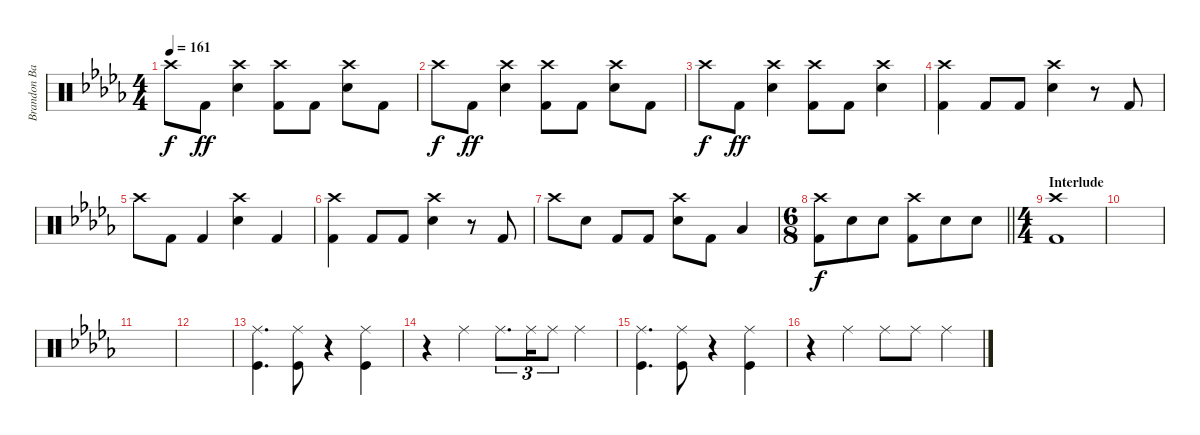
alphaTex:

\track ("Brandon Barnes - Drums" "Brandon Ba") {instrument percussion}
\staff {score}
\articulation defaults
\ts (4 4)
\tempo 161
\clef neutral
\ks db "Crash high (hit)".8{dy f} "Kick (hit) 2".8{dy ff}
("Snare (hit) 2" "Crash high (hit)").4 ("Kick (hit) 2" "Crash high (hit)").8 "Kick (hit) 2".8 ("Snare (hit) 2" "Crash high (hit)").8 "Kick (hit) 2".8 |
"Crash high (hit)".8{dy f} "Kick (hit) 2".8{dy ff} ("Snare (hit) 2" "Crash high (hit)").4 ("Kick (hit) 2" "Crash high (hit)").8 "Kick (hit) 2".8 ("Snare (hit) 2" "Crash high (hit)").8 "Kick (hit) 2".8 |
"Crash high (hit)".8{dy f} "Kick (hit) 2".8{dy ff} ("Snare (hit) 2" "Crash high (hit)").4 ("Kick (hit) 2" "Crash high (hit)").8 "Kick (hit) 2".8 ("Snare (hit) 2" "Crash high (hit)").4 |
("Crash high (hit)" "Kick (hit) 2").4 "Kick (hit) 2".8 "Kick (hit) 2".8 ("Snare (hit) 2" "Crash high (hit)").4 r.8 "Kick (hit) 2".8 |
"Crash high (hit)".8 "Kick (hit) 2".8 "Kick (hit) 2".4 ("Snare (hit) 2" "Crash high (hit)").4 "Kick (hit) 2".4 |
("Crash high (hit)" "Kick (hit) 2").4 "Kick (hit) 2".8 "Kick (hit) 2".8 ("Snare (hit) 2" "Crash high (hit)").4 r.8 "Kick (hit) 2".8 |
"Crash high (hit)".8 "Snare (hit) 2".8 "Kick (hit) 2".8 "Kick (hit) 2".8 ("Snare (hit) 2" "Crash high (hit)").8 "Kick (hit) 2".8 "Low Tom (hit)".4 |
\ts (6 8)
\barLineRight lightlight
("Kick (hit) 2" "Crash high (hit)").8{dy f} "Snare (hit) 2".8 "Snare (hit) 2".8 ("Kick (hit) 2" "Crash high (hit)").8 "Snare (hit) 2".8 "Snare (hit) 2".8 |
\ts (4 4)
\section ("" "Interlude")
("Kick (hit) 2" "Crash high (hit)").1 |
|
|
|
("Ride (middle)" "Kick (hit)").4{d} ("Ride (middle)" "Kick (hit)").8 r.4 ("Ride (middle)" "Kick (hit)").4 |
r.4 "Ride (middle)".4 "Ride (middle)".8{d tu (3 2)} "Ride (middle)".16{tu (3 2)} "Ride (middle)".8{tu (3 2)} "Ride (middle)".4 |
("Ride (middle)" "Kick (hit)").4{d} ("Ride (middle)" "Kick (hit)").8 r.4 ("Ride (middle)" "Kick (hit)").4 |
r.4 "Ride (middle)".4 "Ride (middle)".8 "Ride (middle)".8 "Ride (middle)".4
